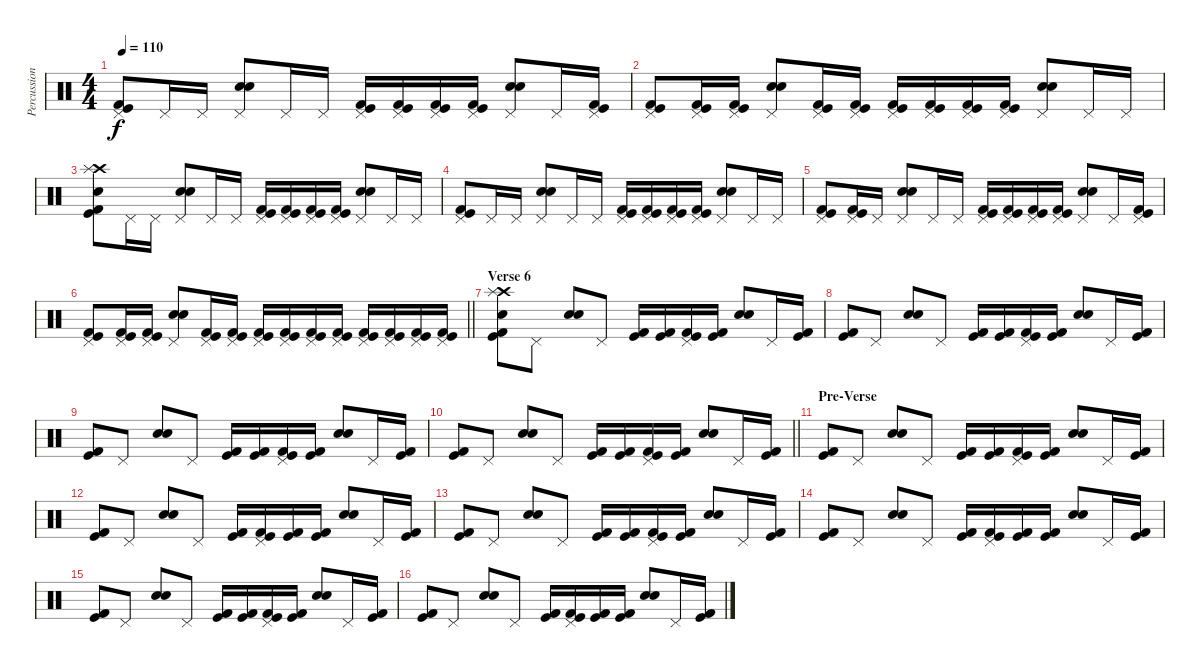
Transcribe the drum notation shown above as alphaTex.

\track ("Percussion" "Percussion") {instrument percussion}
\staff {score}
\articulation defaults
\ts (4 4)
\tempo 110
\clef neutral
\ks c
("Pedal Hi-Hat (hit)" "Kick (hit)" "Kick (hit) 2").8{dy f} "Pedal Hi-Hat (hit)".16 "Pedal Hi-Hat (hit)".16 ("Electric Snare (hit)" "Snare (hit) 2" "Pedal Hi-Hat (hit)").8 "Pedal Hi-Hat (hit)".16 "Pedal Hi-Hat (hit)".16 ("Pedal Hi-Hat (hit)" "Kick (hit)" "Kick (hit) 2").16 ("Pedal Hi-Hat (hit)" "Kick (hit)" "Kick (hit) 2").16 ("Pedal Hi-Hat (hit)" "Kick (hit)" "Kick (hit) 2").16 ("Pedal Hi-Hat (hit)" "Kick (hit)" "Kick (hit) 2").16 ("Electric Snare (hit)" "Snare (hit) 2" "Pedal Hi-Hat (hit)").8 "Pedal Hi-Hat (hit)".16 ("Pedal Hi-Hat (hit)" "Kick (hit)" "Kick (hit) 2").16 |
("Pedal Hi-Hat (hit)" "Kick (hit)" "Kick (hit) 2").8 ("Pedal Hi-Hat (hit)" "Kick (hit)" "Kick (hit) 2").16 ("Pedal Hi-Hat (hit)" "Kick (hit)" "Kick (hit) 2").16 ("Electric Snare (hit)" "Snare (hit) 2" "Pedal Hi-Hat (hit)").8 ("Pedal Hi-Hat (hit)" "Kick (hit)" "Kick (hit) 2").16 ("Pedal Hi-Hat (hit)" "Kick (hit)" "Kick (hit) 2").16 ("Pedal Hi-Hat (hit)" "Kick (hit)" "Kick (hit) 2").16 ("Pedal Hi-Hat (hit)" "Kick (hit)" "Kick (hit) 2").16 ("Pedal Hi-Hat (hit)" "Kick (hit)" "Kick (hit) 2").16 ("Pedal Hi-Hat (hit)" "Kick (hit)" "Kick (hit) 2").16 ("Electric Snare (hit)" "Snare (hit) 2" "Pedal Hi-Hat (hit)").8 "Pedal Hi-Hat (hit)".16 "Pedal Hi-Hat (hit)".16 |
("Crash high (hit)" "Splash (hit)" "Snare (hit) 2" "Kick (hit)" "Kick (hit) 2").8 "Pedal Hi-Hat (hit)".16 "Pedal Hi-Hat (hit)".16 ("Electric Snare (hit)" "Snare (hit) 2" "Pedal Hi-Hat (hit)").8 "Pedal Hi-Hat (hit)".16 "Pedal Hi-Hat (hit)".16 ("Pedal Hi-Hat (hit)" "Kick (hit)" "Kick (hit) 2").16 ("Pedal Hi-Hat (hit)" "Kick (hit)" "Kick (hit) 2").16 ("Pedal Hi-Hat (hit)" "Kick (hit)" "Kick (hit) 2").16 ("Pedal Hi-Hat (hit)" "Kick (hit)" "Kick (hit) 2").16 ("Electric Snare (hit)" "Snare (hit) 2" "Pedal Hi-Hat (hit)").8 "Pedal Hi-Hat (hit)".16 "Pedal Hi-Hat (hit)".16 |
("Pedal Hi-Hat (hit)" "Kick (hit)" "Kick (hit) 2").8 "Pedal Hi-Hat (hit)".16 "Pedal Hi-Hat (hit)".16 ("Electric Snare (hit)" "Snare (hit) 2" "Pedal Hi-Hat (hit)").8 "Pedal Hi-Hat (hit)".16 "Pedal Hi-Hat (hit)".16 ("Pedal Hi-Hat (hit)" "Kick (hit)" "Kick (hit) 2").16 ("Pedal Hi-Hat (hit)" "Kick (hit)" "Kick (hit) 2").16 ("Pedal Hi-Hat (hit)" "Kick (hit)" "Kick (hit) 2").16 ("Pedal Hi-Hat (hit)" "Kick (hit)" "Kick (hit) 2").16 ("Electric Snare (hit)" "Snare (hit) 2" "Pedal Hi-Hat (hit)").8 "Pedal Hi-Hat (hit)".16 "Pedal Hi-Hat (hit)".16 |
("Pedal Hi-Hat (hit)" "Kick (hit)" "Kick (hit) 2").8 ("Pedal Hi-Hat (hit)" "Kick (hit)" "Kick (hit) 2").16 "Pedal Hi-Hat (hit)".16 ("Electric Snare (hit)" "Snare (hit) 2" "Pedal Hi-Hat (hit)").8 "Pedal Hi-Hat (hit)".16 "Pedal Hi-Hat (hit)".16 ("Pedal Hi-Hat (hit)" "Kick (hit)" "Kick (hit) 2").16 ("Pedal Hi-Hat (hit)" "Kick (hit)" "Kick (hit) 2").16 ("Pedal Hi-Hat (hit)" "Kick (hit)" "Kick (hit) 2").16 ("Pedal Hi-Hat (hit)" "Kick (hit)" "Kick (hit) 2").16 ("Electric Snare (hit)" "Snare (hit) 2" "Pedal Hi-Hat (hit)").8 "Pedal Hi-Hat (hit)".16 ("Pedal Hi-Hat (hit)" "Kick (hit)" "Kick (hit) 2").16 |
\barLineRight lightlight
("Pedal Hi-Hat (hit)" "Kick (hit)" "Kick (hit) 2").8 ("Pedal Hi-Hat (hit)" "Kick (hit)" "Kick (hit) 2").16 ("Pedal Hi-Hat (hit)" "Kick (hit)" "Kick (hit) 2").16 ("Electric Snare (hit)" "Snare (hit) 2" "Pedal Hi-Hat (hit)").8 ("Pedal Hi-Hat (hit)" "Kick (hit)" "Kick (hit) 2").16 ("Pedal Hi-Hat (hit)" "Kick (hit)" "Kick (hit) 2").16 ("Pedal Hi-Hat (hit)" "Kick (hit)" "Kick (hit) 2").16 ("Pedal Hi-Hat (hit)" "Kick (hit)" "Kick (hit) 2").16 ("Pedal Hi-Hat (hit)" "Kick (hit)" "Kick (hit) 2").16 ("Pedal Hi-Hat (hit)" "Kick (hit)" "Kick (hit) 2").16 ("Pedal Hi-Hat (hit)" "Kick (hit)" "Kick (hit) 2").16 ("Pedal Hi-Hat (hit)" "Kick (hit)" "Kick (hit) 2").16 ("Pedal Hi-Hat (hit)" "Kick (hit)" "Kick (hit) 2").16 ("Pedal Hi-Hat (hit)" "Kick (hit)" "Kick (hit) 2").16 |
\section ("" "Verse 6")
("Crash high (hit)" "Splash (hit)" "Snare (hit) 2" "Kick (hit)" "Kick (hit) 2").8 "Pedal Hi-Hat (hit)".8 ("Electric Snare (hit)" "Snare (hit) 2").8 "Pedal Hi-Hat (hit)".8 ("Kick (hit)" "Kick (hit) 2").16 ("Kick (hit)" "Kick (hit) 2").16 ("Pedal Hi-Hat (hit)" "Kick (hit)" "Kick (hit) 2").16 ("Kick (hit)" "Kick (hit) 2").16 ("Electric Snare (hit)" "Snare (hit) 2").8 "Pedal Hi-Hat (hit)".16 ("Kick (hit)" "Kick (hit) 2").16 |
("Kick (hit)" "Kick (hit) 2").8 "Pedal Hi-Hat (hit)".8 ("Electric Snare (hit)" "Snare (hit) 2").8 "Pedal Hi-Hat (hit)".8 ("Kick (hit)" "Kick (hit) 2").16 ("Kick (hit)" "Kick (hit) 2").16 ("Pedal Hi-Hat (hit)" "Kick (hit)" "Kick (hit) 2").16 ("Kick (hit)" "Kick (hit) 2").16 ("Electric Snare (hit)" "Snare (hit) 2").8 "Pedal Hi-Hat (hit)".16 ("Kick (hit)" "Kick (hit) 2").16 |
("Kick (hit)" "Kick (hit) 2").8 "Pedal Hi-Hat (hit)".8 ("Electric Snare (hit)" "Snare (hit) 2").8 "Pedal Hi-Hat (hit)".8 ("Kick (hit)" "Kick (hit) 2").16 ("Kick (hit)" "Kick (hit) 2").16 ("Pedal Hi-Hat (hit)" "Kick (hit)" "Kick (hit) 2").16 ("Kick (hit)" "Kick (hit) 2").16 ("Electric Snare (hit)" "Snare (hit) 2").8 "Pedal Hi-Hat (hit)".16 ("Kick (hit)" "Kick (hit) 2").16 |
\barLineRight lightlight
("Kick (hit)" "Kick (hit) 2").8 "Pedal Hi-Hat (hit)".8 ("Electric Snare (hit)" "Snare (hit) 2").8 "Pedal Hi-Hat (hit)".8 ("Kick (hit)" "Kick (hit) 2").16 ("Kick (hit)" "Kick (hit) 2").16 ("Pedal Hi-Hat (hit)" "Kick (hit)" "Kick (hit) 2").16 ("Kick (hit)" "Kick (hit) 2").16 ("Electric Snare (hit)" "Snare (hit) 2").8 "Pedal Hi-Hat (hit)".16 ("Kick (hit)" "Kick (hit) 2").16 |
\section ("" "Pre-Verse")
("Kick (hit)" "Kick (hit) 2").8 "Pedal Hi-Hat (hit)".8 ("Electric Snare (hit)" "Snare (hit) 2").8 "Pedal Hi-Hat (hit)".8 ("Kick (hit)" "Kick (hit) 2").16 ("Kick (hit)" "Kick (hit) 2").16 ("Pedal Hi-Hat (hit)" "Kick (hit)" "Kick (hit) 2").16 ("Kick (hit)" "Kick (hit) 2").16 ("Electric Snare (hit)" "Snare (hit) 2").8 "Pedal Hi-Hat (hit)".16 ("Kick (hit)" "Kick (hit) 2").16 |
("Kick (hit)" "Kick (hit) 2").8 "Pedal Hi-Hat (hit)".8 ("Electric Snare (hit)" "Snare (hit) 2").8 "Pedal Hi-Hat (hit)".8 ("Kick (hit)" "Kick (hit) 2").16 ("Pedal Hi-Hat (hit)" "Kick (hit)" "Kick (hit) 2").16 ("Kick (hit)" "Kick (hit) 2").16 ("Kick (hit)" "Kick (hit) 2").16 ("Electric Snare (hit)" "Snare (hit) 2").8 "Pedal Hi-Hat (hit)".16 ("Kick (hit)" "Kick (hit) 2").16 |
("Kick (hit)" "Kick (hit) 2").8 "Pedal Hi-Hat (hit)".8 ("Electric Snare (hit)" "Snare (hit) 2").8 "Pedal Hi-Hat (hit)".8 ("Kick (hit)" "Kick (hit) 2").16 ("Kick (hit)" "Kick (hit) 2").16 ("Pedal Hi-Hat (hit)" "Kick (hit)" "Kick (hit) 2").16 ("Kick (hit)" "Kick (hit) 2").16 ("Electric Snare (hit)" "Snare (hit) 2").8 "Pedal Hi-Hat (hit)".16 ("Kick (hit)" "Kick (hit) 2").16 |
("Kick (hit)" "Kick (hit) 2").8 "Pedal Hi-Hat (hit)".8 ("Electric Snare (hit)" "Snare (hit) 2").8 "Pedal Hi-Hat (hit)".8 ("Kick (hit)" "Kick (hit) 2").16 ("Pedal Hi-Hat (hit)" "Kick (hit)" "Kick (hit) 2").16 ("Kick (hit)" "Kick (hit) 2").16 ("Kick (hit)" "Kick (hit) 2").16 ("Electric Snare (hit)" "Snare (hit) 2").8 "Pedal Hi-Hat (hit)".16 ("Kick (hit)" "Kick (hit) 2").16 |
("Kick (hit)" "Kick (hit) 2").8 "Pedal Hi-Hat (hit)".8 ("Electric Snare (hit)" "Snare (hit) 2").8 "Pedal Hi-Hat (hit)".8 ("Kick (hit)" "Kick (hit) 2").16 ("Kick (hit)" "Kick (hit) 2").16 ("Pedal Hi-Hat (hit)" "Kick (hit)" "Kick (hit) 2").16 ("Kick (hit)" "Kick (hit) 2").16 ("Electric Snare (hit)" "Snare (hit) 2").8 "Pedal Hi-Hat (hit)".16 ("Kick (hit)" "Kick (hit) 2").16 |
("Kick (hit)" "Kick (hit) 2").8 "Pedal Hi-Hat (hit)".8 ("Electric Snare (hit)" "Snare (hit) 2").8 "Pedal Hi-Hat (hit)".8 ("Kick (hit)" "Kick (hit) 2").16 ("Pedal Hi-Hat (hit)" "Kick (hit)" "Kick (hit) 2").16 ("Kick (hit)" "Kick (hit) 2").16 ("Kick (hit)" "Kick (hit) 2").16 ("Electric Snare (hit)" "Snare (hit) 2").8 "Pedal Hi-Hat (hit)".16 ("Kick (hit)" "Kick (hit) 2").16
